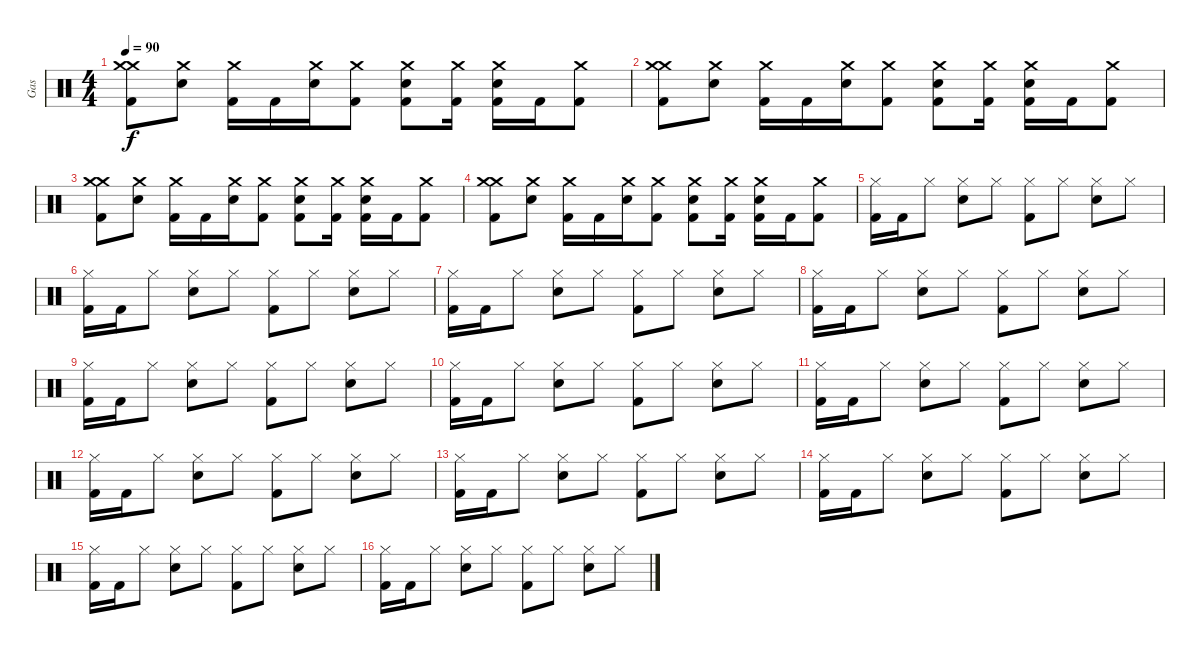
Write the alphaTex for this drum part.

\track ("Gas" "Gas") {instrument percussion}
\staff {score}
\articulation defaults
\ts (4 4)
\tempo 90
\clef neutral
\ks c
("Crash medium (hit)" "Crash medium (hit)" "Kick (hit) 2").8{dy f} ("Snare (hit) 2" "Crash medium (hit)").8 ("Crash medium (hit)" "Kick (hit) 2").16 "Kick (hit) 2".16 ("Snare (hit) 2" "Crash medium (hit)").16 ("Crash medium (hit)" "Kick (hit) 2").8 ("Snare (hit) 2" "Crash medium (hit)" "Kick (hit) 2").8 ("Crash medium (hit)" "Kick (hit) 2").16 ("Snare (hit) 2" "Crash medium (hit)" "Kick (hit) 2").16 "Kick (hit) 2".16 ("Crash medium (hit)" "Kick (hit) 2").8 |
("Crash medium (hit)" "Crash medium (hit)" "Kick (hit) 2").8 ("Snare (hit) 2" "Crash medium (hit)").8 ("Crash medium (hit)" "Kick (hit) 2").16 "Kick (hit) 2".16 ("Snare (hit) 2" "Crash medium (hit)").16 ("Crash medium (hit)" "Kick (hit) 2").8 ("Snare (hit) 2" "Crash medium (hit)" "Kick (hit) 2").8 ("Crash medium (hit)" "Kick (hit) 2").16 ("Snare (hit) 2" "Crash medium (hit)" "Kick (hit) 2").16 "Kick (hit) 2".16 ("Crash medium (hit)" "Kick (hit) 2").8 |
("Crash medium (hit)" "Crash medium (hit)" "Kick (hit) 2").8 ("Snare (hit) 2" "Crash medium (hit)").8 ("Crash medium (hit)" "Kick (hit) 2").16 "Kick (hit) 2".16 ("Snare (hit) 2" "Crash medium (hit)").16 ("Crash medium (hit)" "Kick (hit) 2").8 ("Snare (hit) 2" "Crash medium (hit)" "Kick (hit) 2").8 ("Crash medium (hit)" "Kick (hit) 2").16 ("Snare (hit) 2" "Crash medium (hit)" "Kick (hit) 2").16 "Kick (hit) 2".16 ("Crash medium (hit)" "Kick (hit) 2").8 |
("Crash medium (hit)" "Crash medium (hit)" "Kick (hit) 2").8 ("Snare (hit) 2" "Crash medium (hit)").8 ("Crash medium (hit)" "Kick (hit) 2").16 "Kick (hit) 2".16 ("Snare (hit) 2" "Crash medium (hit)").16 ("Crash medium (hit)" "Kick (hit) 2").8 ("Snare (hit) 2" "Crash medium (hit)" "Kick (hit) 2").8 ("Crash medium (hit)" "Kick (hit) 2").16 ("Snare (hit) 2" "Crash medium (hit)" "Kick (hit) 2").16 "Kick (hit) 2".16 ("Crash medium (hit)" "Kick (hit) 2").8 |
("Hi-Hat (closed)" "Kick (hit) 2").16 "Kick (hit) 2".16 "Hi-Hat (closed)".8 ("Snare (hit) 2" "Hi-Hat (closed)").8 "Hi-Hat (closed)".8 ("Hi-Hat (closed)" "Kick (hit) 2").8 "Hi-Hat (closed)".8 ("Snare (hit) 2" "Hi-Hat (closed)").8 "Hi-Hat (closed)".8 |
("Hi-Hat (closed)" "Kick (hit) 2").16 "Kick (hit) 2".16 "Hi-Hat (closed)".8 ("Snare (hit) 2" "Hi-Hat (closed)").8 "Hi-Hat (closed)".8 ("Hi-Hat (closed)" "Kick (hit) 2").8 "Hi-Hat (closed)".8 ("Snare (hit) 2" "Hi-Hat (closed)").8 "Hi-Hat (closed)".8 |
("Hi-Hat (closed)" "Kick (hit) 2").16 "Kick (hit) 2".16 "Hi-Hat (closed)".8 ("Snare (hit) 2" "Hi-Hat (closed)").8 "Hi-Hat (closed)".8 ("Hi-Hat (closed)" "Kick (hit) 2").8 "Hi-Hat (closed)".8 ("Snare (hit) 2" "Hi-Hat (closed)").8 "Hi-Hat (closed)".8 |
("Hi-Hat (closed)" "Kick (hit) 2").16 "Kick (hit) 2".16 "Hi-Hat (closed)".8 ("Snare (hit) 2" "Hi-Hat (closed)").8 "Hi-Hat (closed)".8 ("Hi-Hat (closed)" "Kick (hit) 2").8 "Hi-Hat (closed)".8 ("Snare (hit) 2" "Hi-Hat (closed)").8 "Hi-Hat (closed)".8 |
("Hi-Hat (closed)" "Kick (hit) 2").16 "Kick (hit) 2".16 "Hi-Hat (closed)".8 ("Snare (hit) 2" "Hi-Hat (closed)").8 "Hi-Hat (closed)".8 ("Hi-Hat (closed)" "Kick (hit) 2").8 "Hi-Hat (closed)".8 ("Snare (hit) 2" "Hi-Hat (closed)").8 "Hi-Hat (closed)".8 |
("Hi-Hat (closed)" "Kick (hit) 2").16 "Kick (hit) 2".16 "Hi-Hat (closed)".8 ("Snare (hit) 2" "Hi-Hat (closed)").8 "Hi-Hat (closed)".8 ("Hi-Hat (closed)" "Kick (hit) 2").8 "Hi-Hat (closed)".8 ("Snare (hit) 2" "Hi-Hat (closed)").8 "Hi-Hat (closed)".8 |
("Hi-Hat (closed)" "Kick (hit) 2").16 "Kick (hit) 2".16 "Hi-Hat (closed)".8 ("Snare (hit) 2" "Hi-Hat (closed)").8 "Hi-Hat (closed)".8 ("Hi-Hat (closed)" "Kick (hit) 2").8 "Hi-Hat (closed)".8 ("Snare (hit) 2" "Hi-Hat (closed)").8 "Hi-Hat (closed)".8 |
("Hi-Hat (closed)" "Kick (hit) 2").16 "Kick (hit) 2".16 "Hi-Hat (closed)".8 ("Snare (hit) 2" "Hi-Hat (closed)").8 "Hi-Hat (closed)".8 ("Hi-Hat (closed)" "Kick (hit) 2").8 "Hi-Hat (closed)".8 ("Snare (hit) 2" "Hi-Hat (closed)").8 "Hi-Hat (closed)".8 |
("Hi-Hat (closed)" "Kick (hit) 2").16 "Kick (hit) 2".16 "Hi-Hat (closed)".8 ("Snare (hit) 2" "Hi-Hat (closed)").8 "Hi-Hat (closed)".8 ("Hi-Hat (closed)" "Kick (hit) 2").8 "Hi-Hat (closed)".8 ("Snare (hit) 2" "Hi-Hat (closed)").8 "Hi-Hat (closed)".8 |
("Hi-Hat (closed)" "Kick (hit) 2").16 "Kick (hit) 2".16 "Hi-Hat (closed)".8 ("Snare (hit) 2" "Hi-Hat (closed)").8 "Hi-Hat (closed)".8 ("Hi-Hat (closed)" "Kick (hit) 2").8 "Hi-Hat (closed)".8 ("Snare (hit) 2" "Hi-Hat (closed)").8 "Hi-Hat (closed)".8 |
("Hi-Hat (closed)" "Kick (hit) 2").16 "Kick (hit) 2".16 "Hi-Hat (closed)".8 ("Snare (hit) 2" "Hi-Hat (closed)").8 "Hi-Hat (closed)".8 ("Hi-Hat (closed)" "Kick (hit) 2").8 "Hi-Hat (closed)".8 ("Snare (hit) 2" "Hi-Hat (closed)").8 "Hi-Hat (closed)".8 |
("Hi-Hat (closed)" "Kick (hit) 2").16 "Kick (hit) 2".16 "Hi-Hat (closed)".8 ("Snare (hit) 2" "Hi-Hat (closed)").8 "Hi-Hat (closed)".8 ("Hi-Hat (closed)" "Kick (hit) 2").8 "Hi-Hat (closed)".8 ("Snare (hit) 2" "Hi-Hat (closed)").8 "Hi-Hat (closed)".8
